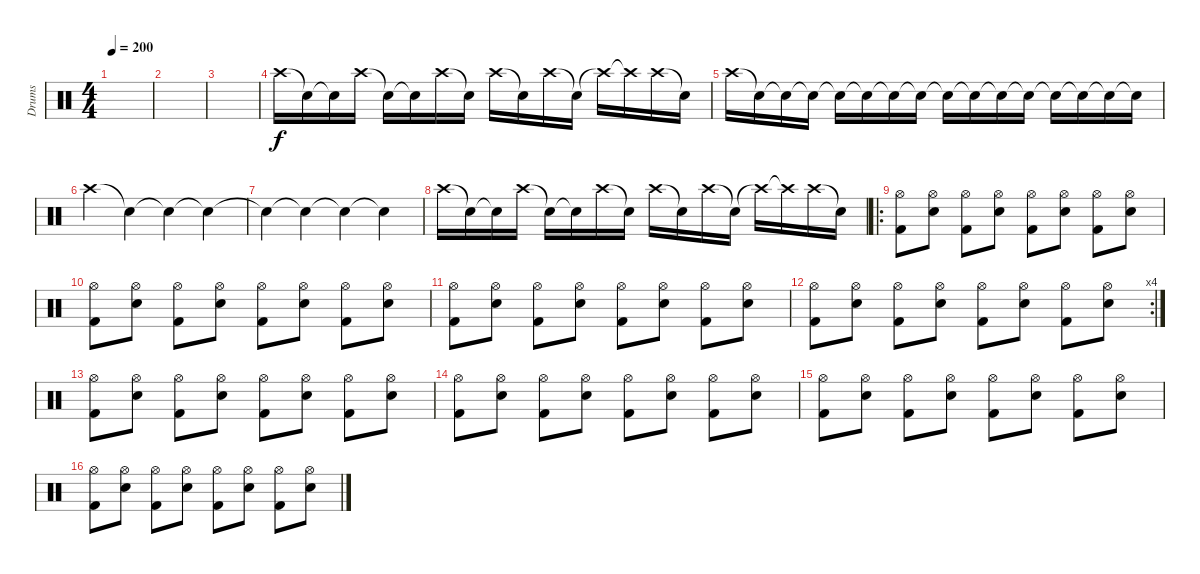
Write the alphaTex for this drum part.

\track ("Drums" "Drums") {instrument percussion}
\staff {score}
\articulation defaults
\ts (4 4)
\tempo 200
\clef neutral
\ks c
|
|
|
"Crash high (hit)".16 "Snare (hit)"{t}.16 "Snare (hit)"{t}.16 "Crash high (hit)".16 "Snare (hit)"{t}.16 "Snare (hit)"{t}.16 "Crash high (hit)".16 "Snare (hit)"{t}.16 "Crash high (hit)".16 "Snare (hit)"{t}.16 "Crash high (hit)".16 "Snare (hit)"{t}.16 "Crash high (hit)"{t}.16 "Crash high (hit)"{t}.16 "Crash high (hit)".16 "Snare (hit)"{t}.16 |
"Crash high (hit)".16 "Snare (hit)"{t}.16 "Snare (hit)"{t}.16 "Snare (hit)"{t}.16 "Snare (hit)"{t}.16 "Snare (hit)"{t}.16 "Snare (hit)"{t}.16 "Snare (hit)"{t}.16 "Snare (hit)"{t}.16 "Snare (hit)"{t}.16 "Snare (hit)"{t}.16 "Snare (hit)"{t}.16 "Snare (hit)"{t}.16 "Snare (hit)"{t}.16 "Snare (hit)"{t}.16 "Snare (hit)"{t}.16 |
"Crash high (hit)".4 "Snare (hit)"{t}.4 "Snare (hit)"{t}.4 "Snare (hit)"{t}.4 |
"Snare (hit)"{t}.4 "Snare (hit)"{t}.4 "Snare (hit)"{t}.4 "Snare (hit)"{t}.4 |
"Crash high (hit)".16 "Snare (hit)"{t}.16 "Snare (hit)"{t}.16 "Crash high (hit)".16 "Snare (hit)"{t}.16 "Snare (hit)"{t}.16 "Crash high (hit)".16 "Snare (hit)"{t}.16 "Crash high (hit)".16 "Snare (hit)"{t}.16 "Crash high (hit)".16 "Snare (hit)"{t}.16 "Crash high (hit)"{t}.16 "Crash high (hit)"{t}.16 "Crash high (hit)".16 "Snare (hit)"{t}.16 |
\ro
("Kick (hit) 2" "Hi-Hat (open)").8 ("Snare (hit) 2" "Hi-Hat (open)").8 ("Kick (hit) 2" "Hi-Hat (open)").8 ("Snare (hit) 2" "Hi-Hat (open)").8 ("Kick (hit) 2" "Hi-Hat (open)").8 ("Snare (hit) 2" "Hi-Hat (open)").8 ("Kick (hit) 2" "Hi-Hat (open)").8 ("Snare (hit) 2" "Hi-Hat (open)").8 |
("Kick (hit) 2" "Hi-Hat (open)").8 ("Snare (hit) 2" "Hi-Hat (open)").8 ("Kick (hit) 2" "Hi-Hat (open)").8 ("Snare (hit) 2" "Hi-Hat (open)").8 ("Kick (hit) 2" "Hi-Hat (open)").8 ("Snare (hit) 2" "Hi-Hat (open)").8 ("Kick (hit) 2" "Hi-Hat (open)").8 ("Snare (hit) 2" "Hi-Hat (open)").8 |
("Kick (hit) 2" "Hi-Hat (open)").8 ("Snare (hit) 2" "Hi-Hat (open)").8 ("Kick (hit) 2" "Hi-Hat (open)").8 ("Snare (hit) 2" "Hi-Hat (open)").8 ("Kick (hit) 2" "Hi-Hat (open)").8 ("Snare (hit) 2" "Hi-Hat (open)").8 ("Kick (hit) 2" "Hi-Hat (open)").8 ("Snare (hit) 2" "Hi-Hat (open)").8 |
\rc 4
("Kick (hit) 2" "Hi-Hat (open)").8 ("Snare (hit) 2" "Hi-Hat (open)").8 ("Kick (hit) 2" "Hi-Hat (open)").8 ("Snare (hit) 2" "Hi-Hat (open)").8 ("Kick (hit) 2" "Hi-Hat (open)").8 ("Snare (hit) 2" "Hi-Hat (open)").8 ("Kick (hit) 2" "Hi-Hat (open)").8 ("Snare (hit) 2" "Hi-Hat (open)").8 |
("Kick (hit) 2" "Hi-Hat (open)").8 ("Snare (hit) 2" "Hi-Hat (open)").8 ("Kick (hit) 2" "Hi-Hat (open)").8 ("Snare (hit) 2" "Hi-Hat (open)").8 ("Kick (hit) 2" "Hi-Hat (open)").8 ("Snare (hit) 2" "Hi-Hat (open)").8 ("Kick (hit) 2" "Hi-Hat (open)").8 ("Snare (hit) 2" "Hi-Hat (open)").8 |
("Kick (hit) 2" "Hi-Hat (open)").8 ("Snare (hit) 2" "Hi-Hat (open)").8 ("Kick (hit) 2" "Hi-Hat (open)").8 ("Snare (hit) 2" "Hi-Hat (open)").8 ("Kick (hit) 2" "Hi-Hat (open)").8 ("Snare (hit) 2" "Hi-Hat (open)").8 ("Kick (hit) 2" "Hi-Hat (open)").8 ("Snare (hit) 2" "Hi-Hat (open)").8 |
("Kick (hit) 2" "Hi-Hat (open)").8 ("Snare (hit) 2" "Hi-Hat (open)").8 ("Kick (hit) 2" "Hi-Hat (open)").8 ("Snare (hit) 2" "Hi-Hat (open)").8 ("Kick (hit) 2" "Hi-Hat (open)").8 ("Snare (hit) 2" "Hi-Hat (open)").8 ("Kick (hit) 2" "Hi-Hat (open)").8 ("Snare (hit) 2" "Hi-Hat (open)").8 |
("Kick (hit) 2" "Hi-Hat (open)").8 ("Snare (hit) 2" "Hi-Hat (open)").8 ("Kick (hit) 2" "Hi-Hat (open)").8 ("Snare (hit) 2" "Hi-Hat (open)").8 ("Kick (hit) 2" "Hi-Hat (open)").8 ("Snare (hit) 2" "Hi-Hat (open)").8 ("Kick (hit) 2" "Hi-Hat (open)").8 ("Snare (hit) 2" "Hi-Hat (open)").8
